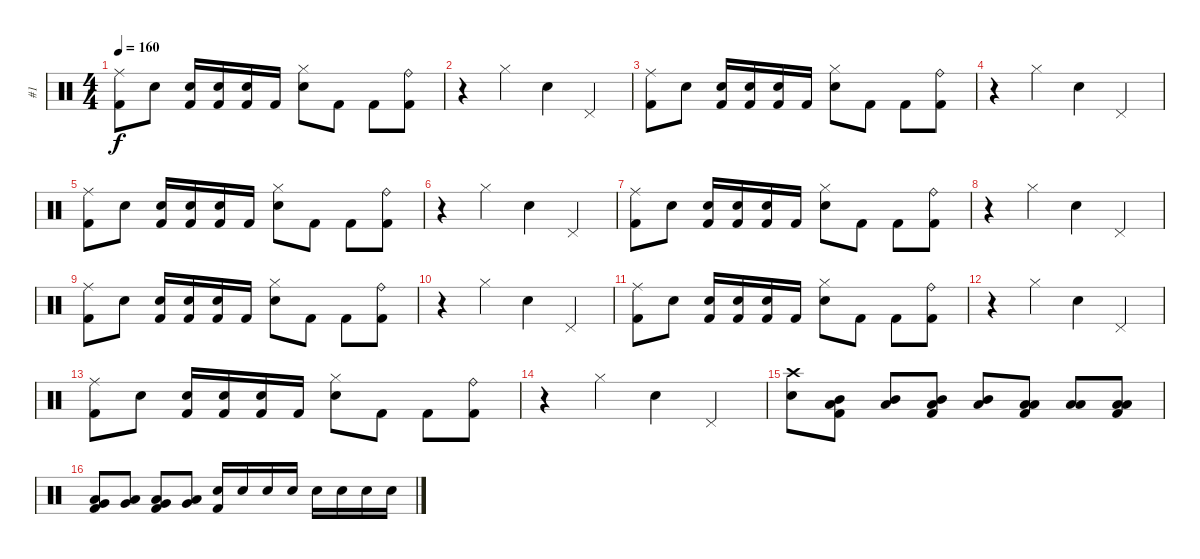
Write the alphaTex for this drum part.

\track ("#1" "#1") {instrument percussion}
\staff {score}
\articulation defaults
\ts (4 4)
\tempo 160
\clef neutral
\ks c
("Kick (hit) 2" "Ride (middle)").8{dy f} "Electric Snare (hit)".8 ("Kick (hit) 2" "Electric Snare (hit)").16 ("Kick (hit) 2" "Electric Snare (hit)").16 ("Kick (hit) 2" "Electric Snare (hit)").16 "Kick (hit) 2".16 ("Electric Snare (hit)" "Hi-Hat (closed)").8 "Kick (hit) 2".8 "Kick (hit) 2".8 ("Kick (hit) 2" "Ride (bell)").8 |
r.4 "Hi-Hat (closed)".4 "Electric Snare (hit)".4 "Pedal Hi-Hat (hit)".4 |
("Kick (hit) 2" "Ride (middle)").8 "Electric Snare (hit)".8 ("Kick (hit) 2" "Electric Snare (hit)").16 ("Kick (hit) 2" "Electric Snare (hit)").16 ("Kick (hit) 2" "Electric Snare (hit)").16 "Kick (hit) 2".16 ("Electric Snare (hit)" "Hi-Hat (closed)").8 "Kick (hit) 2".8 "Kick (hit) 2".8 ("Kick (hit) 2" "Ride (bell)").8 |
r.4 "Hi-Hat (closed)".4 "Electric Snare (hit)".4 "Pedal Hi-Hat (hit)".4 |
("Kick (hit) 2" "Ride (middle)").8 "Electric Snare (hit)".8 ("Kick (hit) 2" "Electric Snare (hit)").16 ("Kick (hit) 2" "Electric Snare (hit)").16 ("Kick (hit) 2" "Electric Snare (hit)").16 "Kick (hit) 2".16 ("Electric Snare (hit)" "Hi-Hat (closed)").8 "Kick (hit) 2".8 "Kick (hit) 2".8 ("Kick (hit) 2" "Ride (bell)").8 |
r.4 "Hi-Hat (closed)".4 "Electric Snare (hit)".4 "Pedal Hi-Hat (hit)".4 |
("Kick (hit) 2" "Ride (middle)").8 "Electric Snare (hit)".8 ("Kick (hit) 2" "Electric Snare (hit)").16 ("Kick (hit) 2" "Electric Snare (hit)").16 ("Kick (hit) 2" "Electric Snare (hit)").16 "Kick (hit) 2".16 ("Electric Snare (hit)" "Hi-Hat (closed)").8 "Kick (hit) 2".8 "Kick (hit) 2".8 ("Kick (hit) 2" "Ride (bell)").8 |
r.4 "Hi-Hat (closed)".4 "Electric Snare (hit)".4 "Pedal Hi-Hat (hit)".4 |
("Kick (hit) 2" "Ride (middle)").8 "Electric Snare (hit)".8 ("Kick (hit) 2" "Electric Snare (hit)").16 ("Kick (hit) 2" "Electric Snare (hit)").16 ("Kick (hit) 2" "Electric Snare (hit)").16 "Kick (hit) 2".16 ("Electric Snare (hit)" "Hi-Hat (closed)").8 "Kick (hit) 2".8 "Kick (hit) 2".8 ("Kick (hit) 2" "Ride (bell)").8 |
r.4 "Hi-Hat (closed)".4 "Electric Snare (hit)".4 "Pedal Hi-Hat (hit)".4 |
("Kick (hit) 2" "Ride (middle)").8 "Electric Snare (hit)".8 ("Kick (hit) 2" "Electric Snare (hit)").16 ("Kick (hit) 2" "Electric Snare (hit)").16 ("Kick (hit) 2" "Electric Snare (hit)").16 "Kick (hit) 2".16 ("Electric Snare (hit)" "Hi-Hat (closed)").8 "Kick (hit) 2".8 "Kick (hit) 2".8 ("Kick (hit) 2" "Ride (bell)").8 |
r.4 "Hi-Hat (closed)".4 "Electric Snare (hit)".4 "Pedal Hi-Hat (hit)".4 |
("Kick (hit) 2" "Ride (middle)").8 "Electric Snare (hit)".8 ("Kick (hit) 2" "Electric Snare (hit)").16 ("Kick (hit) 2" "Electric Snare (hit)").16 ("Kick (hit) 2" "Electric Snare (hit)").16 "Kick (hit) 2".16 ("Electric Snare (hit)" "Hi-Hat (closed)").8 "Kick (hit) 2".8 "Kick (hit) 2".8 ("Kick (hit) 2" "Ride (bell)").8 |
r.4 "Hi-Hat (closed)".4 "Electric Snare (hit)".4 "Pedal Hi-Hat (hit)".4 |
("Electric Snare (hit)" "Crash high (hit)").8 ("Mid Tom (hit)" "Kick (hit) 2" "Low Floor Tom (hit)").8 ("Mid Tom (hit)" "Low Floor Tom (hit)").8 ("Mid Tom (hit)" "Kick (hit) 2" "Low Floor Tom (hit)").8 ("Mid Tom (hit)" "Low Floor Tom (hit)").8 ("Low Tom (hit)" "Kick (hit) 2" "Low Floor Tom (hit)").8 ("Low Tom (hit)" "Low Floor Tom (hit)").8 ("Low Tom (hit)" "Kick (hit) 2" "Low Floor Tom (hit)").8 |
("Very Low Tom (hit)" "Kick (hit) 2" "Low Floor Tom (hit)").8 ("Very Low Tom (hit)" "Low Floor Tom (hit)").8 ("Very Low Tom (hit)" "Kick (hit) 2" "Low Floor Tom (hit)").8 ("Very Low Tom (hit)" "Low Floor Tom (hit)").8 ("Electric Snare (hit)" "Kick (hit) 2").16 "Electric Snare (hit)".16 "Electric Snare (hit)".16 "Electric Snare (hit)".16 "Electric Snare (hit)".16 "Electric Snare (hit)".16 "Electric Snare (hit)".16 "Electric Snare (hit)".16
